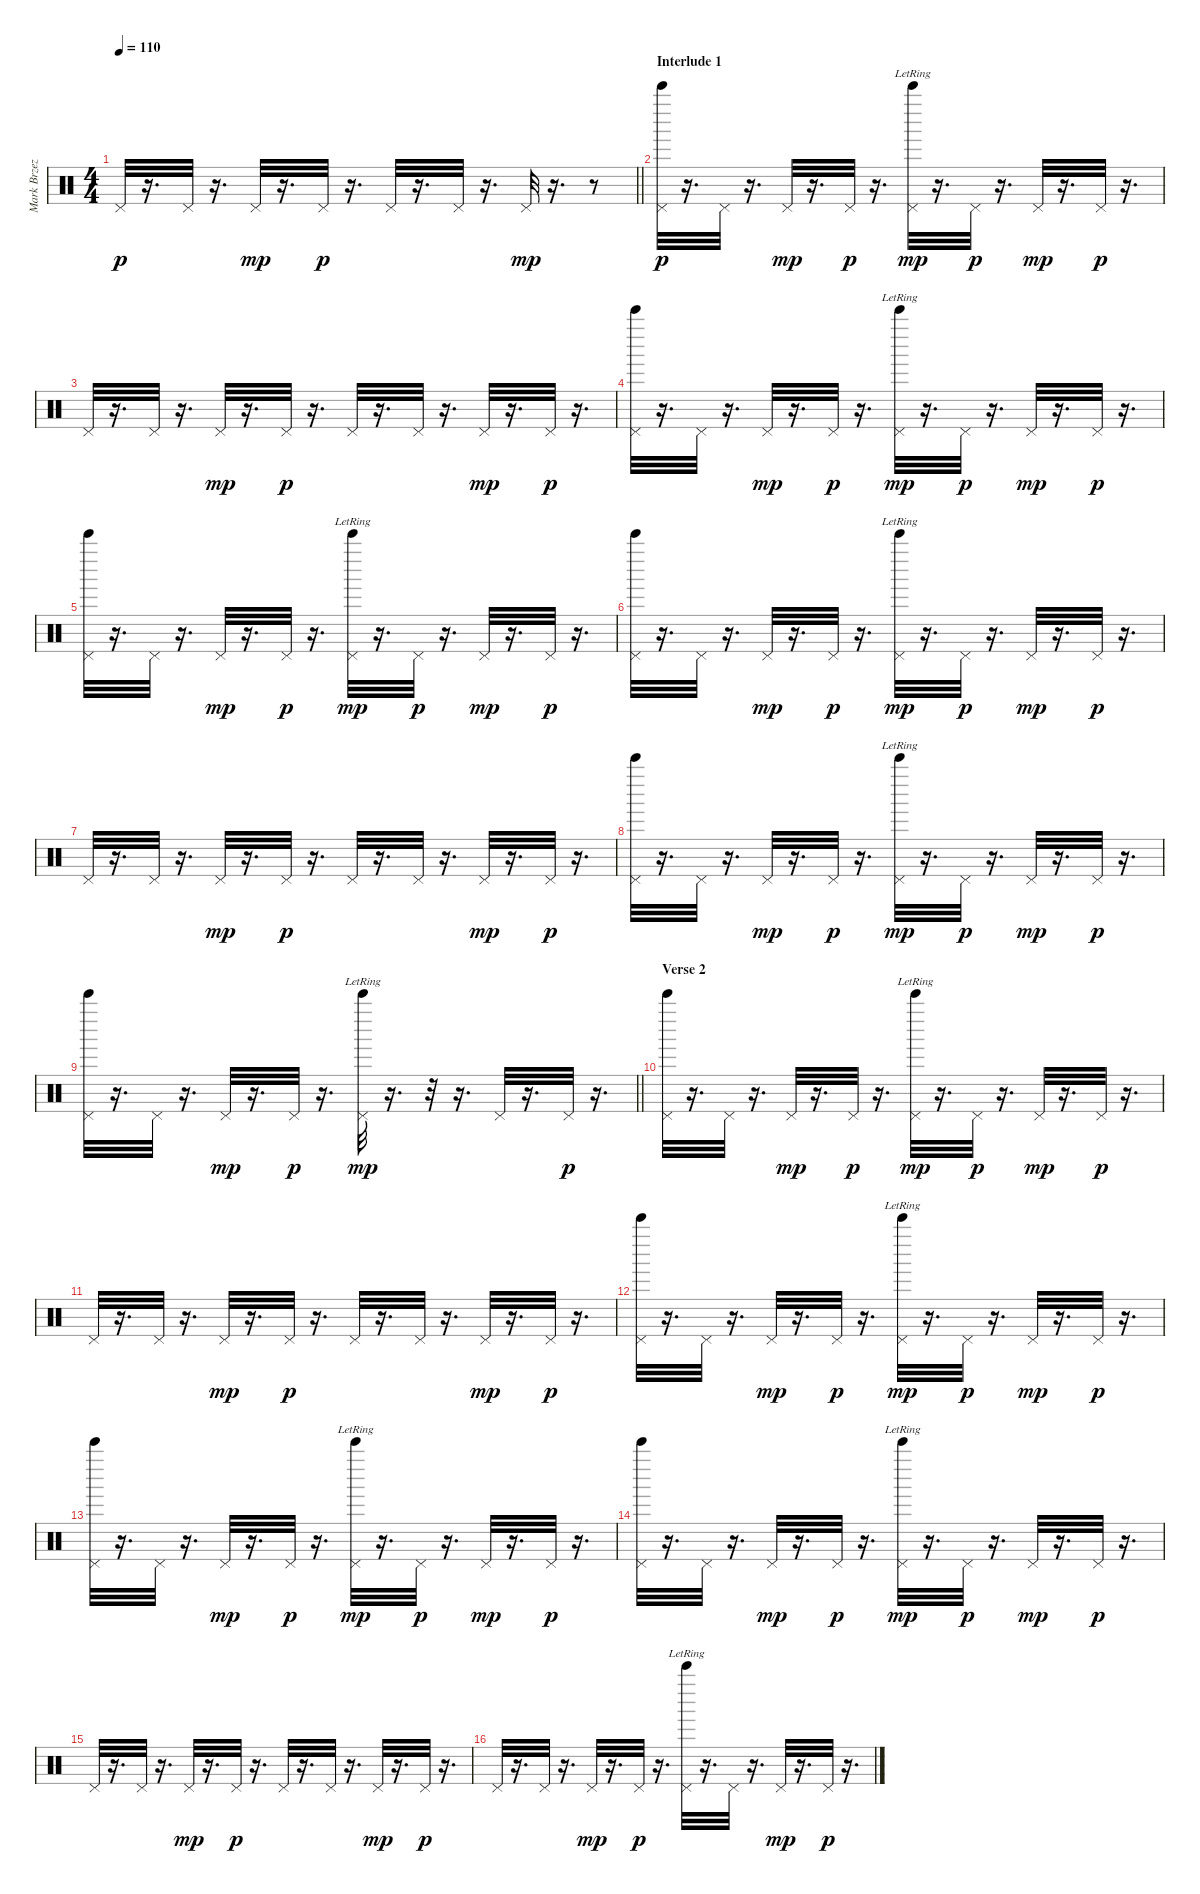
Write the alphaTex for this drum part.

\track ("Mark Brzezicki - Cymbal (Crash, Open & C" "Mark Brzez") {instrument percussion}
\staff {score}
\articulation defaults
\ts (4 4)
\tempo 110
\clef neutral
\barLineRight lightlight
\ks c "Pedal Hi-Hat (hit)".32{dy p}
r.16{d} "Pedal Hi-Hat (hit)".32 r.16{d} "Pedal Hi-Hat (hit)".32{dy mp} r.16{d} "Pedal Hi-Hat (hit)".32{dy p} r.16{d} "Pedal Hi-Hat (hit)".32 r.16{d} "Pedal Hi-Hat (hit)".32 r.16{d} "Pedal Hi-Hat (hit)".32{dy mp} r.16{d} r.8 |
\section ("" "Interlude 1")
("Pedal Hi-Hat (hit)" "Bell Tree (hit)").32{dy p} r.16{d} "Pedal Hi-Hat (hit)".32 r.16{d} "Pedal Hi-Hat (hit)".32{dy mp} r.16{d} "Pedal Hi-Hat (hit)".32{dy p} r.16{d} ("Pedal Hi-Hat (hit)" "Bell Tree (hit)"{lr}).32{dy mp} r.16{d} "Pedal Hi-Hat (hit)".32{dy p} r.16{d} "Pedal Hi-Hat (hit)".32{dy mp} r.16{d} "Pedal Hi-Hat (hit)".32{dy p} r.16{d} |
"Pedal Hi-Hat (hit)".32 r.16{d} "Pedal Hi-Hat (hit)".32 r.16{d} "Pedal Hi-Hat (hit)".32{dy mp} r.16{d} "Pedal Hi-Hat (hit)".32{dy p} r.16{d} "Pedal Hi-Hat (hit)".32 r.16{d} "Pedal Hi-Hat (hit)".32 r.16{d} "Pedal Hi-Hat (hit)".32{dy mp} r.16{d} "Pedal Hi-Hat (hit)".32{dy p} r.16{d} |
("Pedal Hi-Hat (hit)" "Bell Tree (hit)").32 r.16{d} "Pedal Hi-Hat (hit)".32 r.16{d} "Pedal Hi-Hat (hit)".32{dy mp} r.16{d} "Pedal Hi-Hat (hit)".32{dy p} r.16{d} ("Pedal Hi-Hat (hit)" "Bell Tree (hit)"{lr}).32{dy mp} r.16{d} "Pedal Hi-Hat (hit)".32{dy p} r.16{d} "Pedal Hi-Hat (hit)".32{dy mp} r.16{d} "Pedal Hi-Hat (hit)".32{dy p} r.16{d} |
("Pedal Hi-Hat (hit)" "Bell Tree (hit)").32 r.16{d} "Pedal Hi-Hat (hit)".32 r.16{d} "Pedal Hi-Hat (hit)".32{dy mp} r.16{d} "Pedal Hi-Hat (hit)".32{dy p} r.16{d} ("Pedal Hi-Hat (hit)" "Bell Tree (hit)"{lr}).32{dy mp} r.16{d} "Pedal Hi-Hat (hit)".32{dy p} r.16{d} "Pedal Hi-Hat (hit)".32{dy mp} r.16{d} "Pedal Hi-Hat (hit)".32{dy p} r.16{d} |
("Pedal Hi-Hat (hit)" "Bell Tree (hit)").32 r.16{d} "Pedal Hi-Hat (hit)".32 r.16{d} "Pedal Hi-Hat (hit)".32{dy mp} r.16{d} "Pedal Hi-Hat (hit)".32{dy p} r.16{d} ("Pedal Hi-Hat (hit)" "Bell Tree (hit)"{lr}).32{dy mp} r.16{d} "Pedal Hi-Hat (hit)".32{dy p} r.16{d} "Pedal Hi-Hat (hit)".32{dy mp} r.16{d} "Pedal Hi-Hat (hit)".32{dy p} r.16{d} |
"Pedal Hi-Hat (hit)".32 r.16{d} "Pedal Hi-Hat (hit)".32 r.16{d} "Pedal Hi-Hat (hit)".32{dy mp} r.16{d} "Pedal Hi-Hat (hit)".32{dy p} r.16{d} "Pedal Hi-Hat (hit)".32 r.16{d} "Pedal Hi-Hat (hit)".32 r.16{d} "Pedal Hi-Hat (hit)".32{dy mp} r.16{d} "Pedal Hi-Hat (hit)".32{dy p} r.16{d} |
("Pedal Hi-Hat (hit)" "Bell Tree (hit)").32 r.16{d} "Pedal Hi-Hat (hit)".32 r.16{d} "Pedal Hi-Hat (hit)".32{dy mp} r.16{d} "Pedal Hi-Hat (hit)".32{dy p} r.16{d} ("Pedal Hi-Hat (hit)" "Bell Tree (hit)"{lr}).32{dy mp} r.16{d} "Pedal Hi-Hat (hit)".32{dy p} r.16{d} "Pedal Hi-Hat (hit)".32{dy mp} r.16{d} "Pedal Hi-Hat (hit)".32{dy p} r.16{d} |
\barLineRight lightlight
("Pedal Hi-Hat (hit)" "Bell Tree (hit)").32 r.16{d} "Pedal Hi-Hat (hit)".32 r.16{d} "Pedal Hi-Hat (hit)".32{dy mp} r.16{d} "Pedal Hi-Hat (hit)".32{dy p} r.16{d} ("Pedal Hi-Hat (hit)" "Bell Tree (hit)"{lr}).32{dy mp} r.16{d} r.32 r.16{d} "Pedal Hi-Hat (hit)".32 r.16{d} "Pedal Hi-Hat (hit)".32{dy p} r.16{d} |
\section ("" "Verse 2")
("Pedal Hi-Hat (hit)" "Bell Tree (hit)").32 r.16{d} "Pedal Hi-Hat (hit)".32 r.16{d} "Pedal Hi-Hat (hit)".32{dy mp} r.16{d} "Pedal Hi-Hat (hit)".32{dy p} r.16{d} ("Pedal Hi-Hat (hit)" "Bell Tree (hit)"{lr}).32{dy mp} r.16{d} "Pedal Hi-Hat (hit)".32{dy p} r.16{d} "Pedal Hi-Hat (hit)".32{dy mp} r.16{d} "Pedal Hi-Hat (hit)".32{dy p} r.16{d} |
"Pedal Hi-Hat (hit)".32 r.16{d} "Pedal Hi-Hat (hit)".32 r.16{d} "Pedal Hi-Hat (hit)".32{dy mp} r.16{d} "Pedal Hi-Hat (hit)".32{dy p} r.16{d} "Pedal Hi-Hat (hit)".32 r.16{d} "Pedal Hi-Hat (hit)".32 r.16{d} "Pedal Hi-Hat (hit)".32{dy mp} r.16{d} "Pedal Hi-Hat (hit)".32{dy p} r.16{d} |
("Pedal Hi-Hat (hit)" "Bell Tree (hit)").32 r.16{d} "Pedal Hi-Hat (hit)".32 r.16{d} "Pedal Hi-Hat (hit)".32{dy mp} r.16{d} "Pedal Hi-Hat (hit)".32{dy p} r.16{d} ("Pedal Hi-Hat (hit)" "Bell Tree (hit)"{lr}).32{dy mp} r.16{d} "Pedal Hi-Hat (hit)".32{dy p} r.16{d} "Pedal Hi-Hat (hit)".32{dy mp} r.16{d} "Pedal Hi-Hat (hit)".32{dy p} r.16{d} |
("Pedal Hi-Hat (hit)" "Bell Tree (hit)").32 r.16{d} "Pedal Hi-Hat (hit)".32 r.16{d} "Pedal Hi-Hat (hit)".32{dy mp} r.16{d} "Pedal Hi-Hat (hit)".32{dy p} r.16{d} ("Pedal Hi-Hat (hit)" "Bell Tree (hit)"{lr}).32{dy mp} r.16{d} "Pedal Hi-Hat (hit)".32{dy p} r.16{d} "Pedal Hi-Hat (hit)".32{dy mp} r.16{d} "Pedal Hi-Hat (hit)".32{dy p} r.16{d} |
("Pedal Hi-Hat (hit)" "Bell Tree (hit)").32 r.16{d} "Pedal Hi-Hat (hit)".32 r.16{d} "Pedal Hi-Hat (hit)".32{dy mp} r.16{d} "Pedal Hi-Hat (hit)".32{dy p} r.16{d} ("Pedal Hi-Hat (hit)" "Bell Tree (hit)"{lr}).32{dy mp} r.16{d} "Pedal Hi-Hat (hit)".32{dy p} r.16{d} "Pedal Hi-Hat (hit)".32{dy mp} r.16{d} "Pedal Hi-Hat (hit)".32{dy p} r.16{d} |
"Pedal Hi-Hat (hit)".32 r.16{d} "Pedal Hi-Hat (hit)".32 r.16{d} "Pedal Hi-Hat (hit)".32{dy mp} r.16{d} "Pedal Hi-Hat (hit)".32{dy p} r.16{d} "Pedal Hi-Hat (hit)".32 r.16{d} "Pedal Hi-Hat (hit)".32 r.16{d} "Pedal Hi-Hat (hit)".32{dy mp} r.16{d} "Pedal Hi-Hat (hit)".32{dy p} r.16{d} |
"Pedal Hi-Hat (hit)".32 r.16{d} "Pedal Hi-Hat (hit)".32 r.16{d} "Pedal Hi-Hat (hit)".32{dy mp} r.16{d} "Pedal Hi-Hat (hit)".32{dy p} r.16{d} ("Pedal Hi-Hat (hit)" "Bell Tree (hit)"{lr}).32 r.16{d} "Pedal Hi-Hat (hit)".32 r.16{d} "Pedal Hi-Hat (hit)".32{dy mp} r.16{d} "Pedal Hi-Hat (hit)".32{dy p} r.16{d}
